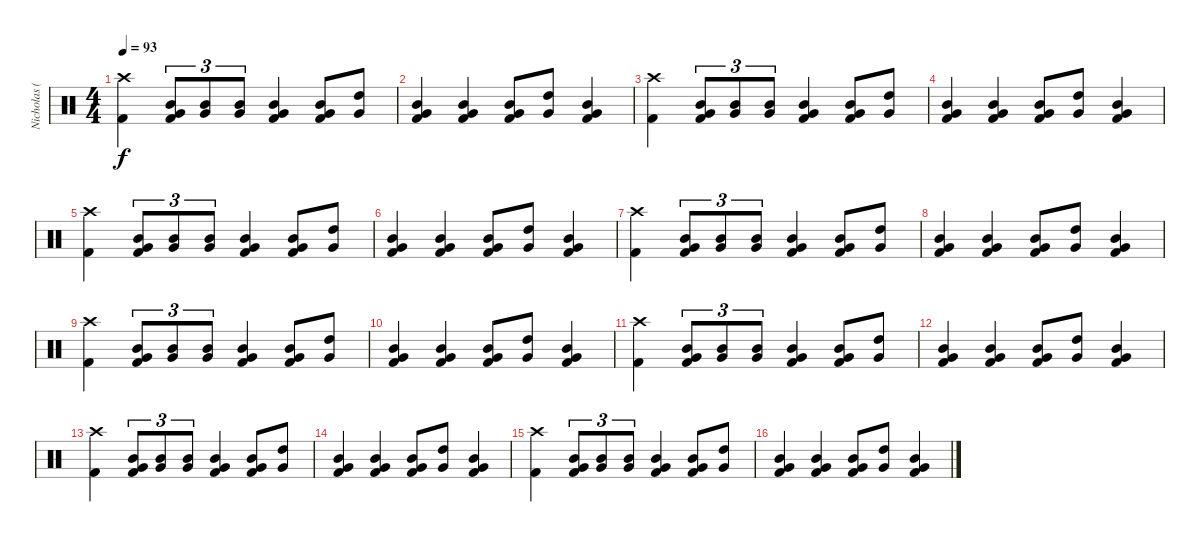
\track ("Nicholas (Drums)" "Nicholas (") {instrument percussion}
\staff {score}
\articulation defaults
\ts (4 4)
\tempo 93
\clef neutral
\ks c
("Crash high (hit)" "Kick (hit) 2").4{dy f} ("Mid Tom (hit)" "Very Low Tom (hit)" "Kick (hit) 2").8{tu (3 2)} ("Mid Tom (hit)" "Very Low Tom (hit)").8{tu (3 2)} ("Mid Tom (hit)" "Very Low Tom (hit)").8{tu (3 2)} ("Mid Tom (hit)" "Very Low Tom (hit)" "Kick (hit) 2").4 ("Mid Tom (hit)" "Very Low Tom (hit)" "Kick (hit) 2").8 ("High Tom (hit)" "Very Low Tom (hit)").8 |
("Mid Tom (hit)" "Very Low Tom (hit)" "Kick (hit) 2").4 ("Mid Tom (hit)" "Very Low Tom (hit)" "Kick (hit) 2").4 ("Mid Tom (hit)" "Very Low Tom (hit)" "Kick (hit) 2").8 ("High Tom (hit)" "Very Low Tom (hit)").8 ("Mid Tom (hit)" "Very Low Tom (hit)" "Kick (hit) 2").4 |
("Crash high (hit)" "Kick (hit) 2").4 ("Mid Tom (hit)" "Very Low Tom (hit)" "Kick (hit) 2").8{tu (3 2)} ("Mid Tom (hit)" "Very Low Tom (hit)").8{tu (3 2)} ("Mid Tom (hit)" "Very Low Tom (hit)").8{tu (3 2)} ("Mid Tom (hit)" "Very Low Tom (hit)" "Kick (hit) 2").4 ("Mid Tom (hit)" "Very Low Tom (hit)" "Kick (hit) 2").8 ("High Tom (hit)" "Very Low Tom (hit)").8 |
("Mid Tom (hit)" "Very Low Tom (hit)" "Kick (hit) 2").4 ("Mid Tom (hit)" "Very Low Tom (hit)" "Kick (hit) 2").4 ("Mid Tom (hit)" "Very Low Tom (hit)" "Kick (hit) 2").8 ("High Tom (hit)" "Very Low Tom (hit)").8 ("Mid Tom (hit)" "Very Low Tom (hit)" "Kick (hit) 2").4 |
("Crash high (hit)" "Kick (hit) 2").4 ("Mid Tom (hit)" "Very Low Tom (hit)" "Kick (hit) 2").8{tu (3 2)} ("Mid Tom (hit)" "Very Low Tom (hit)").8{tu (3 2)} ("Mid Tom (hit)" "Very Low Tom (hit)").8{tu (3 2)} ("Mid Tom (hit)" "Very Low Tom (hit)" "Kick (hit) 2").4 ("Mid Tom (hit)" "Very Low Tom (hit)" "Kick (hit) 2").8 ("High Tom (hit)" "Very Low Tom (hit)").8 |
("Mid Tom (hit)" "Very Low Tom (hit)" "Kick (hit) 2").4 ("Mid Tom (hit)" "Very Low Tom (hit)" "Kick (hit) 2").4 ("Mid Tom (hit)" "Very Low Tom (hit)" "Kick (hit) 2").8 ("High Tom (hit)" "Very Low Tom (hit)").8 ("Mid Tom (hit)" "Very Low Tom (hit)" "Kick (hit) 2").4 |
("Crash high (hit)" "Kick (hit) 2").4 ("Mid Tom (hit)" "Very Low Tom (hit)" "Kick (hit) 2").8{tu (3 2)} ("Mid Tom (hit)" "Very Low Tom (hit)").8{tu (3 2)} ("Mid Tom (hit)" "Very Low Tom (hit)").8{tu (3 2)} ("Mid Tom (hit)" "Very Low Tom (hit)" "Kick (hit) 2").4 ("Mid Tom (hit)" "Very Low Tom (hit)" "Kick (hit) 2").8 ("High Tom (hit)" "Very Low Tom (hit)").8 |
("Mid Tom (hit)" "Very Low Tom (hit)" "Kick (hit) 2").4 ("Mid Tom (hit)" "Very Low Tom (hit)" "Kick (hit) 2").4 ("Mid Tom (hit)" "Very Low Tom (hit)" "Kick (hit) 2").8 ("High Tom (hit)" "Very Low Tom (hit)").8 ("Mid Tom (hit)" "Very Low Tom (hit)" "Kick (hit) 2").4 |
("Crash high (hit)" "Kick (hit) 2").4 ("Mid Tom (hit)" "Very Low Tom (hit)" "Kick (hit) 2").8{tu (3 2)} ("Mid Tom (hit)" "Very Low Tom (hit)").8{tu (3 2)} ("Mid Tom (hit)" "Very Low Tom (hit)").8{tu (3 2)} ("Mid Tom (hit)" "Very Low Tom (hit)" "Kick (hit) 2").4 ("Mid Tom (hit)" "Very Low Tom (hit)" "Kick (hit) 2").8 ("High Tom (hit)" "Very Low Tom (hit)").8 |
("Mid Tom (hit)" "Very Low Tom (hit)" "Kick (hit) 2").4 ("Mid Tom (hit)" "Very Low Tom (hit)" "Kick (hit) 2").4 ("Mid Tom (hit)" "Very Low Tom (hit)" "Kick (hit) 2").8 ("High Tom (hit)" "Very Low Tom (hit)").8 ("Mid Tom (hit)" "Very Low Tom (hit)" "Kick (hit) 2").4 |
("Crash high (hit)" "Kick (hit) 2").4 ("Mid Tom (hit)" "Very Low Tom (hit)" "Kick (hit) 2").8{tu (3 2)} ("Mid Tom (hit)" "Very Low Tom (hit)").8{tu (3 2)} ("Mid Tom (hit)" "Very Low Tom (hit)").8{tu (3 2)} ("Mid Tom (hit)" "Very Low Tom (hit)" "Kick (hit) 2").4 ("Mid Tom (hit)" "Very Low Tom (hit)" "Kick (hit) 2").8 ("High Tom (hit)" "Very Low Tom (hit)").8 |
("Mid Tom (hit)" "Very Low Tom (hit)" "Kick (hit) 2").4 ("Mid Tom (hit)" "Very Low Tom (hit)" "Kick (hit) 2").4 ("Mid Tom (hit)" "Very Low Tom (hit)" "Kick (hit) 2").8 ("High Tom (hit)" "Very Low Tom (hit)").8 ("Mid Tom (hit)" "Very Low Tom (hit)" "Kick (hit) 2").4 |
("Crash high (hit)" "Kick (hit) 2").4 ("Mid Tom (hit)" "Very Low Tom (hit)" "Kick (hit) 2").8{tu (3 2)} ("Mid Tom (hit)" "Very Low Tom (hit)").8{tu (3 2)} ("Mid Tom (hit)" "Very Low Tom (hit)").8{tu (3 2)} ("Mid Tom (hit)" "Very Low Tom (hit)" "Kick (hit) 2").4 ("Mid Tom (hit)" "Very Low Tom (hit)" "Kick (hit) 2").8 ("High Tom (hit)" "Very Low Tom (hit)").8 |
("Mid Tom (hit)" "Very Low Tom (hit)" "Kick (hit) 2").4 ("Mid Tom (hit)" "Very Low Tom (hit)" "Kick (hit) 2").4 ("Mid Tom (hit)" "Very Low Tom (hit)" "Kick (hit) 2").8 ("High Tom (hit)" "Very Low Tom (hit)").8 ("Mid Tom (hit)" "Very Low Tom (hit)" "Kick (hit) 2").4 |
("Crash high (hit)" "Kick (hit) 2").4 ("Mid Tom (hit)" "Very Low Tom (hit)" "Kick (hit) 2").8{tu (3 2)} ("Mid Tom (hit)" "Very Low Tom (hit)").8{tu (3 2)} ("Mid Tom (hit)" "Very Low Tom (hit)").8{tu (3 2)} ("Mid Tom (hit)" "Very Low Tom (hit)" "Kick (hit) 2").4 ("Mid Tom (hit)" "Very Low Tom (hit)" "Kick (hit) 2").8 ("High Tom (hit)" "Very Low Tom (hit)").8 |
("Mid Tom (hit)" "Very Low Tom (hit)" "Kick (hit) 2").4 ("Mid Tom (hit)" "Very Low Tom (hit)" "Kick (hit) 2").4 ("Mid Tom (hit)" "Very Low Tom (hit)" "Kick (hit) 2").8 ("High Tom (hit)" "Very Low Tom (hit)").8 ("Mid Tom (hit)" "Very Low Tom (hit)" "Kick (hit) 2").4
